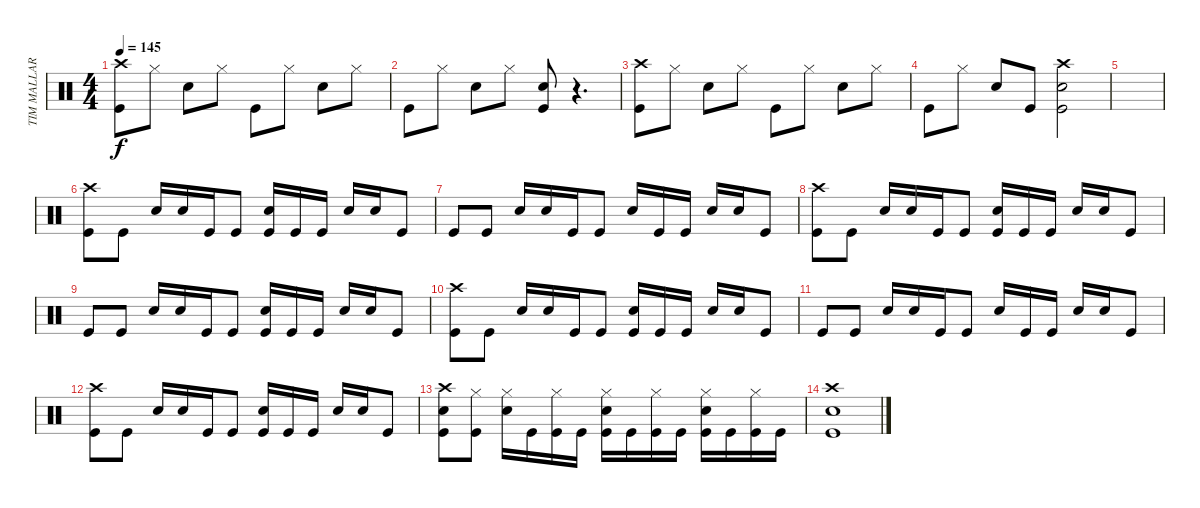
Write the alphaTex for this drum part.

\track ("TIM MALLARE - drums" "TIM MALLAR") {instrument percussion}
\staff {score}
\articulation defaults
\ts (4 4)
\tempo 145
\clef neutral
\ks c
("Crash high (hit)" "Kick (hit)").8{dy f} "Hi-Hat (closed)".8 "Electric Snare (hit)".8 "Hi-Hat (closed)".8 "Kick (hit)".8 "Hi-Hat (closed)".8 "Electric Snare (hit)".8 "Hi-Hat (closed)".8 |
"Kick (hit)".8 "Hi-Hat (closed)".8 "Electric Snare (hit)".8 "Hi-Hat (closed)".8 ("Electric Snare (hit)" "Kick (hit)").8 r.4{d} |
("Crash high (hit)" "Kick (hit)").8 "Hi-Hat (closed)".8 "Electric Snare (hit)".8 "Hi-Hat (closed)".8 "Kick (hit)".8 "Hi-Hat (closed)".8 "Electric Snare (hit)".8 "Hi-Hat (closed)".8 |
"Kick (hit)".8 "Hi-Hat (closed)".8 "Electric Snare (hit)".8 "Kick (hit)".8 ("Crash high (hit)" "Electric Snare (hit)" "Kick (hit)").2 |
|
("Crash high (hit)" "Kick (hit)").8 "Kick (hit)".8 "Electric Snare (hit)".16 "Electric Snare (hit)".16 "Kick (hit)".16 "Kick (hit)".8 ("Electric Snare (hit)" "Kick (hit)").16 "Kick (hit)".16 "Kick (hit)".16 "Electric Snare (hit)".16 "Electric Snare (hit)".16 "Kick (hit)".8 |
"Kick (hit)".8 "Kick (hit)".8 "Electric Snare (hit)".16 "Electric Snare (hit)".16 "Kick (hit)".16 "Kick (hit)".8 "Electric Snare (hit)".16 "Kick (hit)".16 "Kick (hit)".16 "Electric Snare (hit)".16 "Electric Snare (hit)".16 "Kick (hit)".8 |
("Crash high (hit)" "Kick (hit)").8 "Kick (hit)".8 "Electric Snare (hit)".16 "Electric Snare (hit)".16 "Kick (hit)".16 "Kick (hit)".8 ("Electric Snare (hit)" "Kick (hit)").16 "Kick (hit)".16 "Kick (hit)".16 "Electric Snare (hit)".16 "Electric Snare (hit)".16 "Kick (hit)".8 |
"Kick (hit)".8 "Kick (hit)".8 "Electric Snare (hit)".16 "Electric Snare (hit)".16 "Kick (hit)".16 "Kick (hit)".8 ("Electric Snare (hit)" "Kick (hit)").16 "Kick (hit)".16 "Kick (hit)".16 "Electric Snare (hit)".16 "Electric Snare (hit)".16 "Kick (hit)".8 |
("Crash high (hit)" "Kick (hit)").8 "Kick (hit)".8 "Electric Snare (hit)".16 "Electric Snare (hit)".16 "Kick (hit)".16 "Kick (hit)".8 ("Electric Snare (hit)" "Kick (hit)").16 "Kick (hit)".16 "Kick (hit)".16 "Electric Snare (hit)".16 "Electric Snare (hit)".16 "Kick (hit)".8 |
"Kick (hit)".8 "Kick (hit)".8 "Electric Snare (hit)".16 "Electric Snare (hit)".16 "Kick (hit)".16 "Kick (hit)".8 "Electric Snare (hit)".16 "Kick (hit)".16 "Kick (hit)".16 "Electric Snare (hit)".16 "Electric Snare (hit)".16 "Kick (hit)".8 |
("Crash high (hit)" "Kick (hit)").8 "Kick (hit)".8 "Electric Snare (hit)".16 "Electric Snare (hit)".16 "Kick (hit)".16 "Kick (hit)".8 ("Electric Snare (hit)" "Kick (hit)").16 "Kick (hit)".16 "Kick (hit)".16 "Electric Snare (hit)".16 "Electric Snare (hit)".16 "Kick (hit)".8 |
("Crash high (hit)" "Electric Snare (hit)" "Kick (hit)").8 ("Hi-Hat (closed)" "Kick (hit)").8 ("Hi-Hat (closed)" "Electric Snare (hit)").16 "Kick (hit)".16 ("Hi-Hat (closed)" "Kick (hit)").16 "Kick (hit)".16 ("Hi-Hat (closed)" "Electric Snare (hit)" "Kick (hit)").16 "Kick (hit)".16 ("Hi-Hat (closed)" "Kick (hit)").16 "Kick (hit)".16 ("Hi-Hat (closed)" "Electric Snare (hit)" "Kick (hit)").16 "Kick (hit)".16 ("Hi-Hat (closed)" "Kick (hit)").16 "Kick (hit)".16 |
("Crash high (hit)" "Electric Snare (hit)" "Kick (hit)").1
